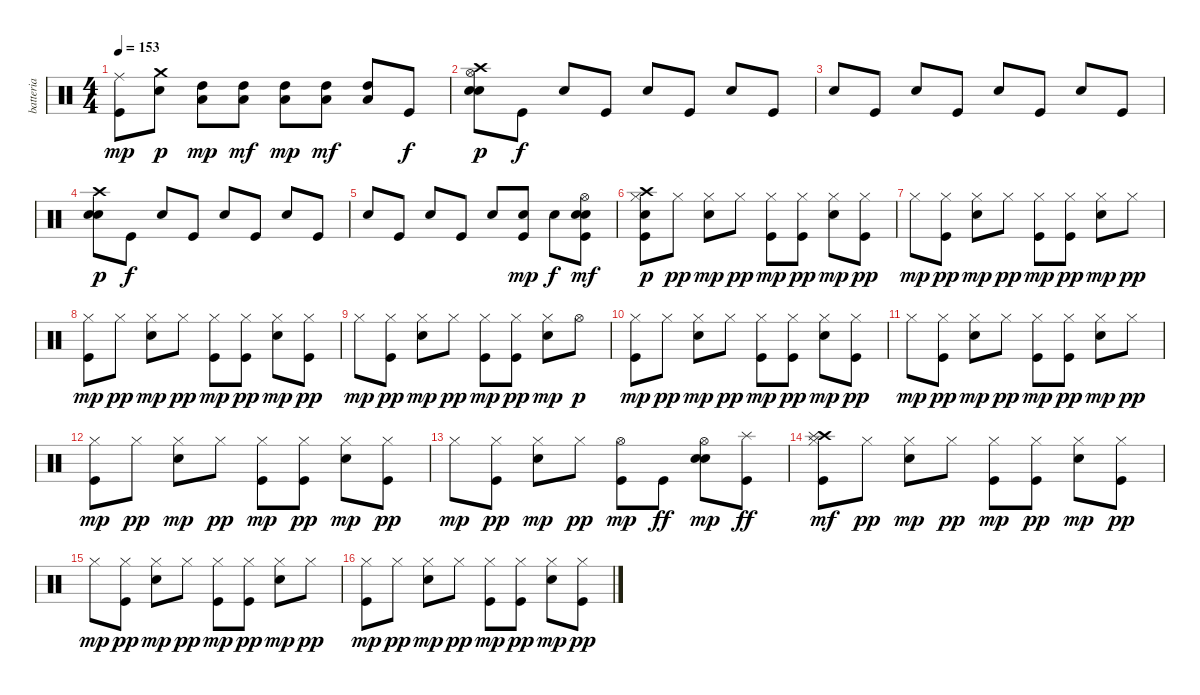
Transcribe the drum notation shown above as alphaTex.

\track ("batteria" "batteria") {instrument percussion}
\staff {score}
\articulation defaults
\ts (4 4)
\tempo 153
\clef neutral
\ks c
("Kick (hit)" "Ride (middle)").8{dy mp} ("Crash medium (hit)" "Electric Snare (hit)").8{dy p} ("High Tom (hit)" "Low Tom (hit)").8{dy mp} ("High Tom (hit)" "Low Tom (hit)").8{dy mf} ("High Tom (hit)" "Low Tom (hit)").8{dy mp} ("High Tom (hit)" "Low Tom (hit)").8{dy mf} ("High Tom (hit)" "Low Tom (hit)").8 "Kick (hit)".8{dy f} |
("Electric Snare (hit)" "Hi-Hat (open)" "Crash high (hit)" "Electric Snare (hit)").8{dy p} "Kick (hit)".8{dy f} "Electric Snare (hit)".8 "Kick (hit)".8 "Electric Snare (hit)".8 "Kick (hit)".8 "Electric Snare (hit)".8 "Kick (hit)".8 |
"Electric Snare (hit)".8 "Kick (hit)".8 "Electric Snare (hit)".8 "Kick (hit)".8 "Electric Snare (hit)".8 "Kick (hit)".8 "Electric Snare (hit)".8 "Kick (hit)".8 |
("Electric Snare (hit)" "Crash high (hit)" "Electric Snare (hit)").8{dy p} "Kick (hit)".8{dy f} "Electric Snare (hit)".8 "Kick (hit)".8 "Electric Snare (hit)".8 "Kick (hit)".8 "Electric Snare (hit)".8 "Kick (hit)".8 |
"Electric Snare (hit)".8 "Kick (hit)".8 "Electric Snare (hit)".8 "Kick (hit)".8 "Electric Snare (hit)".8 ("Kick (hit)" "Electric Snare (hit)").8{dy mp} "Electric Snare (hit)".8{dy f} ("Electric Snare (hit)" "Kick (hit)" "Hi-Hat (open)" "Electric Snare (hit)").8{dy mf} |
("Electric Snare (hit)" "Kick (hit)" "Hi-Hat (closed)" "Crash high (hit)").8{dy p} "Hi-Hat (closed)".8{dy pp} ("Hi-Hat (closed)" "Electric Snare (hit)").8{dy mp} "Hi-Hat (closed)".8{dy pp} ("Kick (hit)" "Hi-Hat (closed)").8{dy mp} ("Kick (hit)" "Hi-Hat (closed)").8{dy pp} ("Hi-Hat (closed)" "Electric Snare (hit)").8{dy mp} ("Kick (hit)" "Hi-Hat (closed)").8{dy pp} |
"Hi-Hat (closed)".8{dy mp} ("Kick (hit)" "Hi-Hat (closed)").8{dy pp} ("Hi-Hat (closed)" "Electric Snare (hit)").8{dy mp} "Hi-Hat (closed)".8{dy pp} ("Kick (hit)" "Hi-Hat (closed)").8{dy mp} ("Kick (hit)" "Hi-Hat (closed)").8{dy pp} ("Hi-Hat (closed)" "Electric Snare (hit)").8{dy mp} "Hi-Hat (closed)".8{dy pp} |
("Kick (hit)" "Hi-Hat (closed)").8{dy mp} "Hi-Hat (closed)".8{dy pp} ("Hi-Hat (closed)" "Electric Snare (hit)").8{dy mp} "Hi-Hat (closed)".8{dy pp} ("Kick (hit)" "Hi-Hat (closed)").8{dy mp} ("Kick (hit)" "Hi-Hat (closed)").8{dy pp} ("Hi-Hat (closed)" "Electric Snare (hit)").8{dy mp} ("Kick (hit)" "Hi-Hat (closed)").8{dy pp} |
"Hi-Hat (closed)".8{dy mp} ("Kick (hit)" "Hi-Hat (closed)").8{dy pp} ("Hi-Hat (closed)" "Electric Snare (hit)").8{dy mp} "Hi-Hat (closed)".8{dy pp} ("Kick (hit)" "Hi-Hat (closed)").8{dy mp} ("Kick (hit)" "Hi-Hat (closed)").8{dy pp} ("Hi-Hat (closed)" "Electric Snare (hit)").8{dy mp} "Hi-Hat (open)".8{dy p} |
("Kick (hit)" "Hi-Hat (closed)").8{dy mp} "Hi-Hat (closed)".8{dy pp} ("Hi-Hat (closed)" "Electric Snare (hit)").8{dy mp} "Hi-Hat (closed)".8{dy pp} ("Kick (hit)" "Hi-Hat (closed)").8{dy mp} ("Kick (hit)" "Hi-Hat (closed)").8{dy pp} ("Hi-Hat (closed)" "Electric Snare (hit)").8{dy mp} ("Kick (hit)" "Hi-Hat (closed)").8{dy pp} |
"Hi-Hat (closed)".8{dy mp} ("Kick (hit)" "Hi-Hat (closed)").8{dy pp} ("Hi-Hat (closed)" "Electric Snare (hit)").8{dy mp} "Hi-Hat (closed)".8{dy pp} ("Kick (hit)" "Hi-Hat (closed)").8{dy mp} ("Kick (hit)" "Hi-Hat (closed)").8{dy pp} ("Hi-Hat (closed)" "Electric Snare (hit)").8{dy mp} "Hi-Hat (closed)".8{dy pp} |
("Kick (hit)" "Hi-Hat (closed)").8{dy mp} "Hi-Hat (closed)".8{dy pp} ("Hi-Hat (closed)" "Electric Snare (hit)").8{dy mp} "Hi-Hat (closed)".8{dy pp} ("Kick (hit)" "Hi-Hat (closed)").8{dy mp} ("Kick (hit)" "Hi-Hat (closed)").8{dy pp} ("Hi-Hat (closed)" "Electric Snare (hit)").8{dy mp} ("Kick (hit)" "Hi-Hat (closed)").8{dy pp} |
"Hi-Hat (closed)".8{dy mp} ("Kick (hit)" "Hi-Hat (closed)").8{dy pp} ("Hi-Hat (closed)" "Electric Snare (hit)").8{dy mp} "Hi-Hat (closed)".8{dy pp} ("Kick (hit)" "Hi-Hat (open)").8{dy mp} "Kick (hit)".8{dy ff} ("Electric Snare (hit)" "Hi-Hat (open)" "Electric Snare (hit)").8{dy mp} ("Kick (hit)" "Splash (hit)").8{dy ff} |
("Kick (hit)" "Hi-Hat (closed)" "Crash high (hit)" "Splash (hit)").8{dy mf} "Hi-Hat (closed)".8{dy pp} ("Hi-Hat (closed)" "Electric Snare (hit)").8{dy mp} "Hi-Hat (closed)".8{dy pp} ("Kick (hit)" "Hi-Hat (closed)").8{dy mp} ("Kick (hit)" "Hi-Hat (closed)").8{dy pp} ("Hi-Hat (closed)" "Electric Snare (hit)").8{dy mp} ("Kick (hit)" "Hi-Hat (closed)").8{dy pp} |
"Hi-Hat (closed)".8{dy mp} ("Kick (hit)" "Hi-Hat (closed)").8{dy pp} ("Hi-Hat (closed)" "Electric Snare (hit)").8{dy mp} "Hi-Hat (closed)".8{dy pp} ("Kick (hit)" "Hi-Hat (closed)").8{dy mp} ("Kick (hit)" "Hi-Hat (closed)").8{dy pp} ("Hi-Hat (closed)" "Electric Snare (hit)").8{dy mp} "Hi-Hat (closed)".8{dy pp} |
("Kick (hit)" "Hi-Hat (closed)").8{dy mp} "Hi-Hat (closed)".8{dy pp} ("Hi-Hat (closed)" "Electric Snare (hit)").8{dy mp} "Hi-Hat (closed)".8{dy pp} ("Kick (hit)" "Hi-Hat (closed)").8{dy mp} ("Kick (hit)" "Hi-Hat (closed)").8{dy pp} ("Hi-Hat (closed)" "Electric Snare (hit)").8{dy mp} ("Kick (hit)" "Hi-Hat (closed)").8{dy pp}
